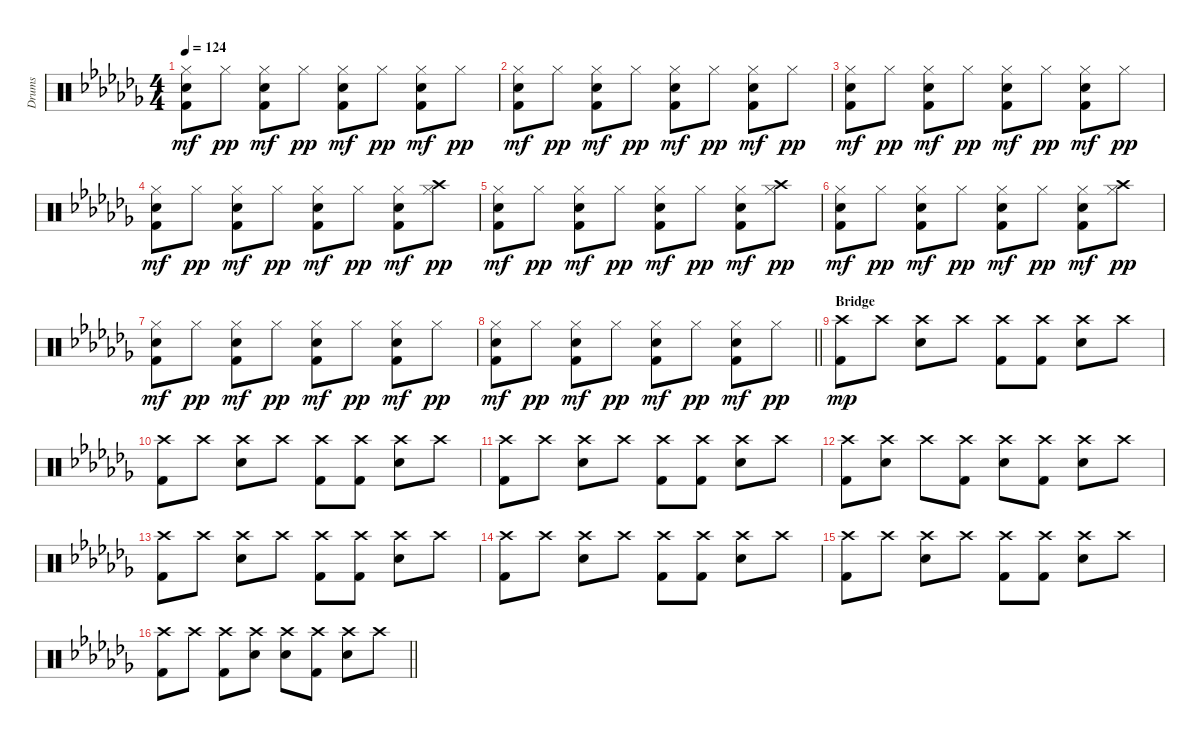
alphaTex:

\track ("Drums" "Drums") {instrument percussion}
\staff {score}
\articulation defaults
\ts (4 4)
\tempo 124
\clef neutral
\ks cb
("Hi-Hat (closed)" "Electric Snare (hit)" "Kick (hit) 2").8{dy mf} "Hi-Hat (closed)".8{dy pp} ("Hi-Hat (closed)" "Electric Snare (hit)" "Kick (hit) 2").8{dy mf} "Hi-Hat (closed)".8{dy pp} ("Hi-Hat (closed)" "Electric Snare (hit)" "Kick (hit) 2").8{dy mf} "Hi-Hat (closed)".8{dy pp} ("Hi-Hat (closed)" "Electric Snare (hit)" "Kick (hit) 2").8{dy mf} "Hi-Hat (closed)".8{dy pp} |
("Hi-Hat (closed)" "Electric Snare (hit)" "Kick (hit) 2").8{dy mf} "Hi-Hat (closed)".8{dy pp} ("Hi-Hat (closed)" "Electric Snare (hit)" "Kick (hit) 2").8{dy mf} "Hi-Hat (closed)".8{dy pp} ("Hi-Hat (closed)" "Electric Snare (hit)" "Kick (hit) 2").8{dy mf} "Hi-Hat (closed)".8{dy pp} ("Hi-Hat (closed)" "Electric Snare (hit)" "Kick (hit) 2").8{dy mf} "Hi-Hat (closed)".8{dy pp} |
("Hi-Hat (closed)" "Electric Snare (hit)" "Kick (hit) 2").8{dy mf} "Hi-Hat (closed)".8{dy pp} ("Hi-Hat (closed)" "Electric Snare (hit)" "Kick (hit) 2").8{dy mf} "Hi-Hat (closed)".8{dy pp} ("Hi-Hat (closed)" "Electric Snare (hit)" "Kick (hit) 2").8{dy mf} "Hi-Hat (closed)".8{dy pp} ("Hi-Hat (closed)" "Electric Snare (hit)" "Kick (hit) 2").8{dy mf} "Hi-Hat (closed)".8{dy pp} |
("Hi-Hat (closed)" "Electric Snare (hit)" "Kick (hit) 2").8{dy mf} "Hi-Hat (closed)".8{dy pp} ("Hi-Hat (closed)" "Electric Snare (hit)" "Kick (hit) 2").8{dy mf} "Hi-Hat (closed)".8{dy pp} ("Hi-Hat (closed)" "Electric Snare (hit)" "Kick (hit) 2").8{dy mf} "Hi-Hat (closed)".8{dy pp} ("Hi-Hat (closed)" "Electric Snare (hit)" "Kick (hit) 2").8{dy mf} ("Crash high (hit)" "Hi-Hat (closed)").8{dy pp} |
("Hi-Hat (closed)" "Electric Snare (hit)" "Kick (hit) 2").8{dy mf} "Hi-Hat (closed)".8{dy pp} ("Hi-Hat (closed)" "Electric Snare (hit)" "Kick (hit) 2").8{dy mf} "Hi-Hat (closed)".8{dy pp} ("Hi-Hat (closed)" "Electric Snare (hit)" "Kick (hit) 2").8{dy mf} "Hi-Hat (closed)".8{dy pp} ("Hi-Hat (closed)" "Electric Snare (hit)" "Kick (hit) 2").8{dy mf} ("Crash high (hit)" "Hi-Hat (closed)").8{dy pp} |
("Hi-Hat (closed)" "Electric Snare (hit)" "Kick (hit) 2").8{dy mf} "Hi-Hat (closed)".8{dy pp} ("Hi-Hat (closed)" "Electric Snare (hit)" "Kick (hit) 2").8{dy mf} "Hi-Hat (closed)".8{dy pp} ("Hi-Hat (closed)" "Electric Snare (hit)" "Kick (hit) 2").8{dy mf} "Hi-Hat (closed)".8{dy pp} ("Hi-Hat (closed)" "Electric Snare (hit)" "Kick (hit) 2").8{dy mf} ("Crash high (hit)" "Hi-Hat (closed)").8{dy pp} |
("Hi-Hat (closed)" "Electric Snare (hit)" "Kick (hit) 2").8{dy mf} "Hi-Hat (closed)".8{dy pp} ("Hi-Hat (closed)" "Electric Snare (hit)" "Kick (hit) 2").8{dy mf} "Hi-Hat (closed)".8{dy pp} ("Hi-Hat (closed)" "Electric Snare (hit)" "Kick (hit) 2").8{dy mf} "Hi-Hat (closed)".8{dy pp} ("Hi-Hat (closed)" "Electric Snare (hit)" "Kick (hit) 2").8{dy mf} "Hi-Hat (closed)".8{dy pp} |
\barLineRight lightlight
("Hi-Hat (closed)" "Electric Snare (hit)" "Kick (hit) 2").8{dy mf} "Hi-Hat (closed)".8{dy pp} ("Hi-Hat (closed)" "Electric Snare (hit)" "Kick (hit) 2").8{dy mf} "Hi-Hat (closed)".8{dy pp} ("Hi-Hat (closed)" "Electric Snare (hit)" "Kick (hit) 2").8{dy mf} "Hi-Hat (closed)".8{dy pp} ("Hi-Hat (closed)" "Electric Snare (hit)" "Kick (hit) 2").8{dy mf} "Hi-Hat (closed)".8{dy pp} |
\section ("" "Bridge")
("Crash high (hit)" "Kick (hit) 2").8{dy mp} "Crash high (hit)".8 ("Crash high (hit)" "Electric Snare (hit)").8 "Crash high (hit)".8 ("Crash high (hit)" "Kick (hit) 2").8 ("Crash high (hit)" "Kick (hit) 2").8 ("Crash high (hit)" "Electric Snare (hit)").8 "Crash high (hit)".8 |
("Crash high (hit)" "Kick (hit) 2").8 "Crash high (hit)".8 ("Crash high (hit)" "Electric Snare (hit)").8 "Crash high (hit)".8 ("Crash high (hit)" "Kick (hit) 2").8 ("Crash high (hit)" "Kick (hit) 2").8 ("Crash high (hit)" "Electric Snare (hit)").8 "Crash high (hit)".8 |
("Crash high (hit)" "Kick (hit) 2").8 "Crash high (hit)".8 ("Crash high (hit)" "Electric Snare (hit)").8 "Crash high (hit)".8 ("Crash high (hit)" "Kick (hit) 2").8 ("Crash high (hit)" "Kick (hit) 2").8 ("Crash high (hit)" "Electric Snare (hit)").8 "Crash high (hit)".8 |
("Crash high (hit)" "Kick (hit) 2").8 ("Crash high (hit)" "Electric Snare (hit)").8 "Crash high (hit)".8 ("Crash high (hit)" "Kick (hit) 2").8 ("Crash high (hit)" "Electric Snare (hit)").8 ("Crash high (hit)" "Kick (hit) 2").8 ("Crash high (hit)" "Electric Snare (hit)").8 "Crash high (hit)".8 |
("Crash high (hit)" "Kick (hit) 2").8 "Crash high (hit)".8 ("Crash high (hit)" "Electric Snare (hit)").8 "Crash high (hit)".8 ("Crash high (hit)" "Kick (hit) 2").8 ("Crash high (hit)" "Kick (hit) 2").8 ("Crash high (hit)" "Electric Snare (hit)").8 "Crash high (hit)".8 |
("Crash high (hit)" "Kick (hit) 2").8 "Crash high (hit)".8 ("Crash high (hit)" "Electric Snare (hit)").8 "Crash high (hit)".8 ("Crash high (hit)" "Kick (hit) 2").8 ("Crash high (hit)" "Kick (hit) 2").8 ("Crash high (hit)" "Electric Snare (hit)").8 "Crash high (hit)".8 |
("Crash high (hit)" "Kick (hit) 2").8 "Crash high (hit)".8 ("Crash high (hit)" "Electric Snare (hit)").8 "Crash high (hit)".8 ("Crash high (hit)" "Kick (hit) 2").8 ("Crash high (hit)" "Kick (hit) 2").8 ("Crash high (hit)" "Electric Snare (hit)").8 "Crash high (hit)".8 |
\barLineRight lightlight
("Crash high (hit)" "Kick (hit) 2").8 "Crash high (hit)".8 ("Crash high (hit)" "Kick (hit) 2").8 ("Crash high (hit)" "Electric Snare (hit)").8 ("Crash high (hit)" "Electric Snare (hit)").8 ("Crash high (hit)" "Kick (hit) 2").8 ("Crash high (hit)" "Electric Snare (hit)").8 "Crash high (hit)".8
